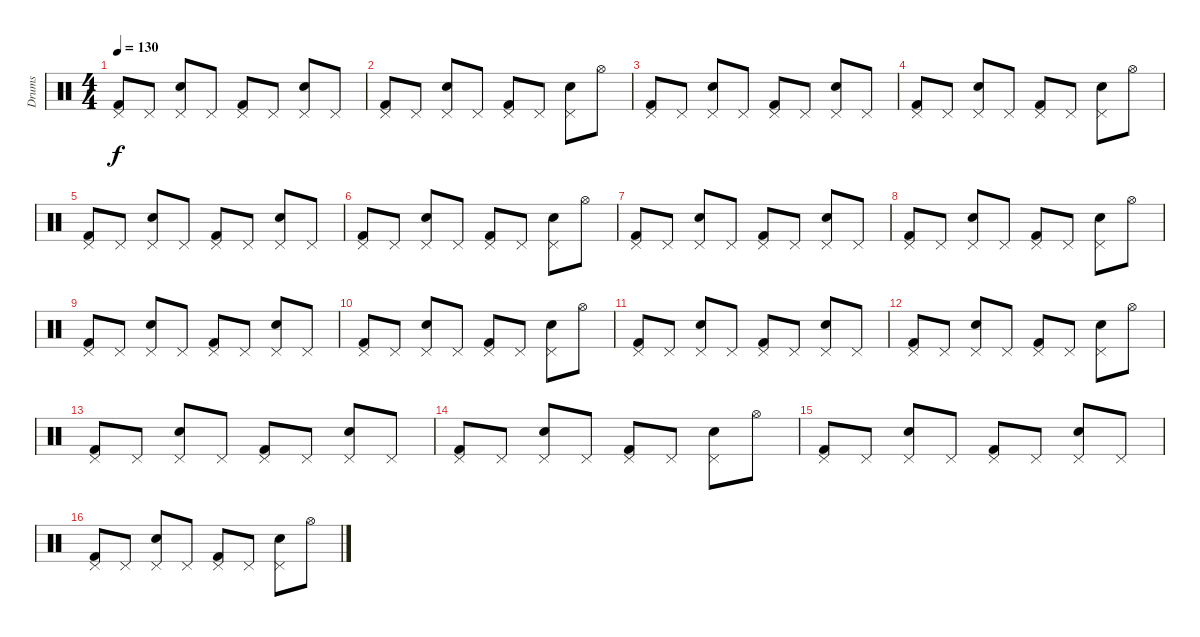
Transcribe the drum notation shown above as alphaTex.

\track ("Drums" "Drums") {instrument percussion}
\staff {score}
\articulation defaults
\ts (4 4)
\tempo 130
\clef neutral
\ks c
("Pedal Hi-Hat (hit)" "Kick (hit) 2").8{dy f} "Pedal Hi-Hat (hit)".8 ("Pedal Hi-Hat (hit)" "Snare (hit) 2").8 "Pedal Hi-Hat (hit)".8 ("Pedal Hi-Hat (hit)" "Kick (hit) 2").8 "Pedal Hi-Hat (hit)".8 ("Pedal Hi-Hat (hit)" "Snare (hit) 2").8 "Pedal Hi-Hat (hit)".8 |
("Pedal Hi-Hat (hit)" "Kick (hit) 2").8 "Pedal Hi-Hat (hit)".8 ("Pedal Hi-Hat (hit)" "Snare (hit) 2").8 "Pedal Hi-Hat (hit)".8 ("Pedal Hi-Hat (hit)" "Kick (hit) 2").8 "Pedal Hi-Hat (hit)".8 ("Pedal Hi-Hat (hit)" "Snare (hit) 2").8 "Hi-Hat (open)".8 |
("Pedal Hi-Hat (hit)" "Kick (hit) 2").8 "Pedal Hi-Hat (hit)".8 ("Pedal Hi-Hat (hit)" "Snare (hit) 2").8 "Pedal Hi-Hat (hit)".8 ("Pedal Hi-Hat (hit)" "Kick (hit) 2").8 "Pedal Hi-Hat (hit)".8 ("Pedal Hi-Hat (hit)" "Snare (hit) 2").8 "Pedal Hi-Hat (hit)".8 |
("Pedal Hi-Hat (hit)" "Kick (hit) 2").8 "Pedal Hi-Hat (hit)".8 ("Pedal Hi-Hat (hit)" "Snare (hit) 2").8 "Pedal Hi-Hat (hit)".8 ("Pedal Hi-Hat (hit)" "Kick (hit) 2").8 "Pedal Hi-Hat (hit)".8 ("Pedal Hi-Hat (hit)" "Snare (hit) 2").8 "Hi-Hat (open)".8 |
("Pedal Hi-Hat (hit)" "Kick (hit) 2").8 "Pedal Hi-Hat (hit)".8 ("Pedal Hi-Hat (hit)" "Snare (hit) 2").8 "Pedal Hi-Hat (hit)".8 ("Pedal Hi-Hat (hit)" "Kick (hit) 2").8 "Pedal Hi-Hat (hit)".8 ("Pedal Hi-Hat (hit)" "Snare (hit) 2").8 "Pedal Hi-Hat (hit)".8 |
("Pedal Hi-Hat (hit)" "Kick (hit) 2").8 "Pedal Hi-Hat (hit)".8 ("Pedal Hi-Hat (hit)" "Snare (hit) 2").8 "Pedal Hi-Hat (hit)".8 ("Pedal Hi-Hat (hit)" "Kick (hit) 2").8 "Pedal Hi-Hat (hit)".8 ("Pedal Hi-Hat (hit)" "Snare (hit) 2").8 "Hi-Hat (open)".8 |
("Pedal Hi-Hat (hit)" "Kick (hit) 2").8 "Pedal Hi-Hat (hit)".8 ("Pedal Hi-Hat (hit)" "Snare (hit) 2").8 "Pedal Hi-Hat (hit)".8 ("Pedal Hi-Hat (hit)" "Kick (hit) 2").8 "Pedal Hi-Hat (hit)".8 ("Pedal Hi-Hat (hit)" "Snare (hit) 2").8 "Pedal Hi-Hat (hit)".8 |
("Pedal Hi-Hat (hit)" "Kick (hit) 2").8 "Pedal Hi-Hat (hit)".8 ("Pedal Hi-Hat (hit)" "Snare (hit) 2").8 "Pedal Hi-Hat (hit)".8 ("Pedal Hi-Hat (hit)" "Kick (hit) 2").8 "Pedal Hi-Hat (hit)".8 ("Pedal Hi-Hat (hit)" "Snare (hit) 2").8 "Hi-Hat (open)".8 |
("Pedal Hi-Hat (hit)" "Kick (hit) 2").8 "Pedal Hi-Hat (hit)".8 ("Pedal Hi-Hat (hit)" "Snare (hit) 2").8 "Pedal Hi-Hat (hit)".8 ("Pedal Hi-Hat (hit)" "Kick (hit) 2").8 "Pedal Hi-Hat (hit)".8 ("Pedal Hi-Hat (hit)" "Snare (hit) 2").8 "Pedal Hi-Hat (hit)".8 |
("Pedal Hi-Hat (hit)" "Kick (hit) 2").8 "Pedal Hi-Hat (hit)".8 ("Pedal Hi-Hat (hit)" "Snare (hit) 2").8 "Pedal Hi-Hat (hit)".8 ("Pedal Hi-Hat (hit)" "Kick (hit) 2").8 "Pedal Hi-Hat (hit)".8 ("Pedal Hi-Hat (hit)" "Snare (hit) 2").8 "Hi-Hat (open)".8 |
("Pedal Hi-Hat (hit)" "Kick (hit) 2").8 "Pedal Hi-Hat (hit)".8 ("Pedal Hi-Hat (hit)" "Snare (hit) 2").8 "Pedal Hi-Hat (hit)".8 ("Pedal Hi-Hat (hit)" "Kick (hit) 2").8 "Pedal Hi-Hat (hit)".8 ("Pedal Hi-Hat (hit)" "Snare (hit) 2").8 "Pedal Hi-Hat (hit)".8 |
("Pedal Hi-Hat (hit)" "Kick (hit) 2").8 "Pedal Hi-Hat (hit)".8 ("Pedal Hi-Hat (hit)" "Snare (hit) 2").8 "Pedal Hi-Hat (hit)".8 ("Pedal Hi-Hat (hit)" "Kick (hit) 2").8 "Pedal Hi-Hat (hit)".8 ("Pedal Hi-Hat (hit)" "Snare (hit) 2").8 "Hi-Hat (open)".8 |
("Pedal Hi-Hat (hit)" "Kick (hit) 2").8 "Pedal Hi-Hat (hit)".8 ("Pedal Hi-Hat (hit)" "Snare (hit) 2").8 "Pedal Hi-Hat (hit)".8 ("Pedal Hi-Hat (hit)" "Kick (hit) 2").8 "Pedal Hi-Hat (hit)".8 ("Pedal Hi-Hat (hit)" "Snare (hit) 2").8 "Pedal Hi-Hat (hit)".8 |
("Pedal Hi-Hat (hit)" "Kick (hit) 2").8 "Pedal Hi-Hat (hit)".8 ("Pedal Hi-Hat (hit)" "Snare (hit) 2").8 "Pedal Hi-Hat (hit)".8 ("Pedal Hi-Hat (hit)" "Kick (hit) 2").8 "Pedal Hi-Hat (hit)".8 ("Pedal Hi-Hat (hit)" "Snare (hit) 2").8 "Hi-Hat (open)".8 |
("Pedal Hi-Hat (hit)" "Kick (hit) 2").8 "Pedal Hi-Hat (hit)".8 ("Pedal Hi-Hat (hit)" "Snare (hit) 2").8 "Pedal Hi-Hat (hit)".8 ("Pedal Hi-Hat (hit)" "Kick (hit) 2").8 "Pedal Hi-Hat (hit)".8 ("Pedal Hi-Hat (hit)" "Snare (hit) 2").8 "Pedal Hi-Hat (hit)".8 |
("Pedal Hi-Hat (hit)" "Kick (hit) 2").8 "Pedal Hi-Hat (hit)".8 ("Pedal Hi-Hat (hit)" "Snare (hit) 2").8 "Pedal Hi-Hat (hit)".8 ("Pedal Hi-Hat (hit)" "Kick (hit) 2").8 "Pedal Hi-Hat (hit)".8 ("Pedal Hi-Hat (hit)" "Snare (hit) 2").8 "Hi-Hat (open)".8
